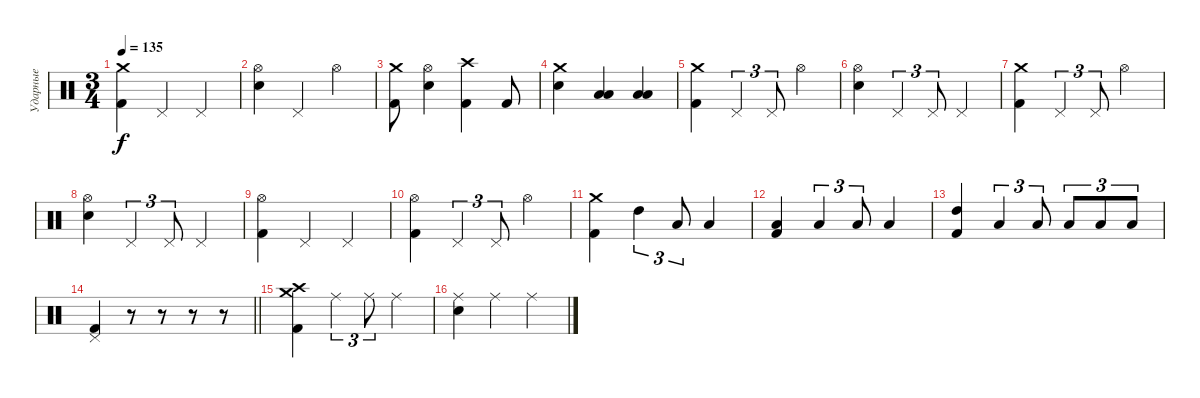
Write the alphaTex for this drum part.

\track ("Ударные" "Ударные") {instrument percussion}
\staff {score}
\articulation defaults
\ts (3 4)
\tempo 135
\clef neutral
\ks c
("Crash medium (hit)" "Kick (hit) 2").4{dy f} "Pedal Hi-Hat (hit)".4 "Pedal Hi-Hat (hit)".4 |
("Hi-Hat (open)" "Electric Snare (hit)").4 "Pedal Hi-Hat (hit)".4 "Hi-Hat (open)".4 |
("Crash medium (hit)" "Kick (hit) 2").8 ("Hi-Hat (open)" "Electric Snare (hit)").4 ("Crash high (hit)" "Kick (hit) 2").4 "Kick (hit) 2".8 |
("Crash medium (hit)" "Electric Snare (hit)").4 ("Low Floor Tom (hit)" "Low Tom (hit)").4 ("Low Floor Tom (hit)" "Low Tom (hit)").4 |
("Crash medium (hit)" "Kick (hit) 2").4 "Pedal Hi-Hat (hit)".4{tu (3 2)} "Pedal Hi-Hat (hit)".8{tu (3 2)} "Hi-Hat (open)".4 |
("Hi-Hat (open)" "Electric Snare (hit)").4 "Pedal Hi-Hat (hit)".4{tu (3 2)} "Pedal Hi-Hat (hit)".8{tu (3 2)} "Pedal Hi-Hat (hit)".4 |
("Crash medium (hit)" "Kick (hit) 2").4 "Pedal Hi-Hat (hit)".4{tu (3 2)} "Pedal Hi-Hat (hit)".8{tu (3 2)} "Hi-Hat (open)".4 |
("Hi-Hat (open)" "Electric Snare (hit)").4 "Pedal Hi-Hat (hit)".4{tu (3 2)} "Pedal Hi-Hat (hit)".8{tu (3 2)} "Pedal Hi-Hat (hit)".4 |
("Hi-Hat (open)" "Kick (hit) 2").4 "Pedal Hi-Hat (hit)".4 "Pedal Hi-Hat (hit)".4 |
("Hi-Hat (open)" "Kick (hit) 2").4 "Pedal Hi-Hat (hit)".4{tu (3 2)} "Pedal Hi-Hat (hit)".8{tu (3 2)} "Hi-Hat (open)".4 |
("Crash medium (hit)" "Kick (hit) 2").4 "High Tom (hit)".4{tu (3 2)} "Low Tom (hit)".8{tu (3 2)} "Low Tom (hit)".4 |
("Low Floor Tom (hit)" "Kick (hit) 2").4 "Low Floor Tom (hit)".4{tu (3 2)} "Low Floor Tom (hit)".8{tu (3 2)} "Low Floor Tom (hit)".4 |
("High Tom (hit)" "Kick (hit) 2").4 "Low Tom (hit)".4{tu (3 2)} "Low Tom (hit)".8{tu (3 2)} "Low Floor Tom (hit)".8{tu (3 2)} "Low Floor Tom (hit)".8{tu (3 2)} "Low Floor Tom (hit)".8{tu (3 2)} |
\barLineRight lightlight
("Pedal Hi-Hat (hit)" "Kick (hit) 2").4 r.8 r.8 r.8 r.8 |
("Crash high (hit)" "Crash medium (hit)" "Kick (hit) 2").4 "Ride (middle)".4{tu (3 2)} "Ride (middle)".8{tu (3 2)} "Ride (middle)".4 |
("Ride (middle)" "Electric Snare (hit)").4 "Ride (middle)".4 "Ride (middle)".4
